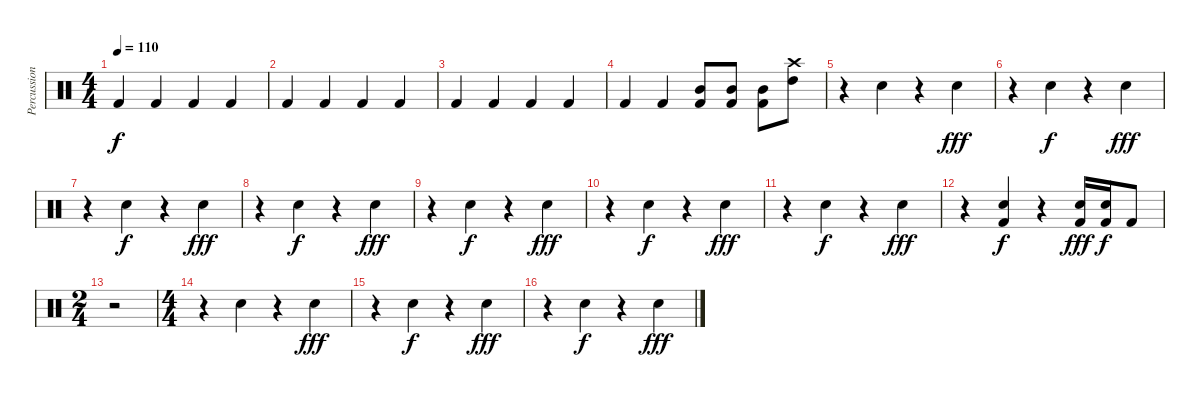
\track ("Percussion" "Percussion") {instrument percussion}
\staff {score}
\articulation defaults
\ts (4 4)
\tempo 110
\clef neutral
\ks c "Kick (hit) 2".4{dy f} "Kick (hit) 2".4 "Kick (hit) 2".4 "Kick (hit) 2".4
|
"Kick (hit) 2".4 "Kick (hit) 2".4 "Kick (hit) 2".4 "Kick (hit) 2".4 |
"Kick (hit) 2".4 "Kick (hit) 2".4 "Kick (hit) 2".4 "Kick (hit) 2".4 |
"Kick (hit) 2".4 "Kick (hit) 2".4 ("Kick (hit) 2" "Mid Tom (hit)").8 ("Kick (hit) 2" "Mid Tom (hit)").8 ("Kick (hit) 2" "Mid Tom (hit)").8 ("Crash high (hit)" "High Tom (hit)").8 |
r.4 "Snare (hit) 2".4 r.4 "Snare (hit) 2".4{dy fff} |
r.4 "Snare (hit) 2".4{dy f} r.4 "Snare (hit) 2".4{dy fff} |
r.4 "Snare (hit) 2".4{dy f} r.4 "Snare (hit) 2".4{dy fff} |
r.4 "Snare (hit) 2".4{dy f} r.4 "Snare (hit) 2".4{dy fff} |
r.4 "Snare (hit) 2".4{dy f} r.4 "Snare (hit) 2".4{dy fff} |
r.4 "Snare (hit) 2".4{dy f} r.4 "Snare (hit) 2".4{dy fff} |
r.4 "Snare (hit) 2".4{dy f} r.4 "Snare (hit) 2".4{dy fff} |
r.4 ("Kick (hit) 2" "Snare (hit) 2").4{dy f} r.4 ("Kick (hit) 2" "Snare (hit) 2").16{dy fff} ("Kick (hit) 2" "Snare (hit) 2").16{dy f} "Kick (hit) 2".8 |
\ts (2 4)
r.2 |
\ts (4 4)
r.4 "Snare (hit) 2".4 r.4 "Snare (hit) 2".4{dy fff} |
r.4 "Snare (hit) 2".4{dy f} r.4 "Snare (hit) 2".4{dy fff} |
r.4 "Snare (hit) 2".4{dy f} r.4 "Snare (hit) 2".4{dy fff}
